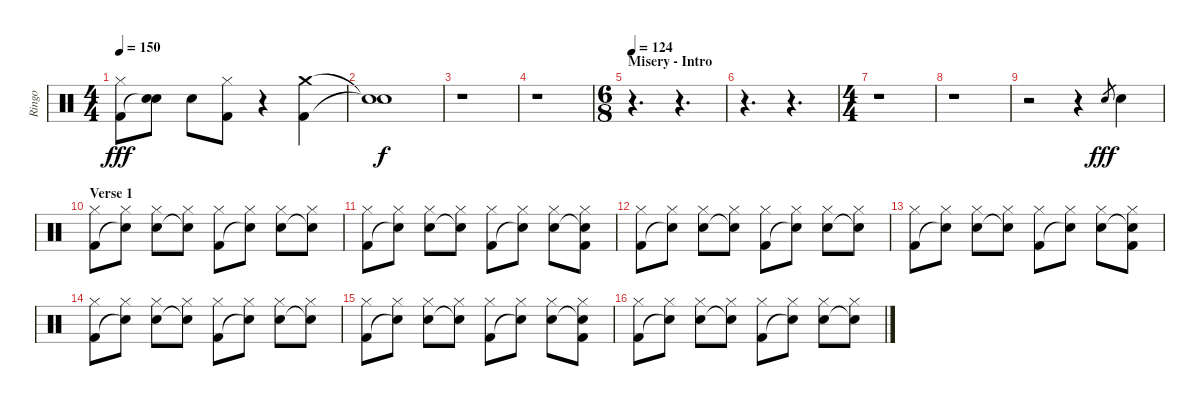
\track ("Ringo" "Ringo") {instrument percussion}
\staff {score}
\articulation defaults
\ts (4 4)
\tempo 150
\clef neutral
\ks c
("Hi-Hat (closed)" "Kick (hit) 2").8{dy fff} ("Snare (hit) 2" "Snare (hit)"{t}).8 "Snare (hit) 2".8 ("Hi-Hat (closed)" "Kick (hit) 2").8 r.4 ("Crash medium (hit)" "Kick (hit) 2").4 |
("Snare (hit)"{t} "Snare (hit)"{t}).1{dy f} |
r.1 |
r.1 |
\ts (6 8)
\section ("" "Misery - Intro")
\tempo 124
r.4{d} r.4{d} |
r.4{d} r.4{d} |
\ts (4 4)
r.1 |
r.1 |
r.2 r.4 "Snare (hit) 2".8{gr dy fff} "Snare (hit) 2".4 |
\section ("" "Verse 1")
("Hi-Hat (closed)" "Kick (hit) 2").8 ("Hi-Hat (closed)" "Snare (hit)"{t}).8 ("Hi-Hat (closed)" "Snare (hit) 2").8 ("Hi-Hat (closed)" "Snare (hit)"{t}).8 ("Hi-Hat (closed)" "Kick (hit) 2").8 ("Hi-Hat (closed)" "Snare (hit)"{t}).8 ("Hi-Hat (closed)" "Snare (hit) 2").8 ("Hi-Hat (closed)" "Snare (hit)"{t}).8 |
("Hi-Hat (closed)" "Kick (hit) 2").8 ("Hi-Hat (closed)" "Snare (hit)"{t}).8 ("Hi-Hat (closed)" "Snare (hit) 2").8 ("Hi-Hat (closed)" "Snare (hit)"{t}).8 ("Hi-Hat (closed)" "Kick (hit) 2").8 ("Hi-Hat (closed)" "Snare (hit)"{t}).8 ("Hi-Hat (closed)" "Snare (hit) 2").8 ("Hi-Hat (closed)" "Snare (hit)"{t} "Kick (hit) 2").8 |
("Hi-Hat (closed)" "Kick (hit) 2").8 ("Hi-Hat (closed)" "Snare (hit)"{t}).8 ("Hi-Hat (closed)" "Snare (hit) 2").8 ("Hi-Hat (closed)" "Snare (hit)"{t}).8 ("Hi-Hat (closed)" "Kick (hit) 2").8 ("Hi-Hat (closed)" "Snare (hit)"{t}).8 ("Hi-Hat (closed)" "Snare (hit) 2").8 ("Hi-Hat (closed)" "Snare (hit)"{t}).8 |
("Hi-Hat (closed)" "Kick (hit) 2").8 ("Hi-Hat (closed)" "Snare (hit)"{t}).8 ("Hi-Hat (closed)" "Snare (hit) 2").8 ("Hi-Hat (closed)" "Snare (hit)"{t}).8 ("Hi-Hat (closed)" "Kick (hit) 2").8 ("Hi-Hat (closed)" "Snare (hit)"{t}).8 ("Hi-Hat (closed)" "Snare (hit) 2").8 ("Hi-Hat (closed)" "Snare (hit)"{t} "Kick (hit) 2").8 |
("Hi-Hat (closed)" "Kick (hit) 2").8 ("Hi-Hat (closed)" "Snare (hit)"{t}).8 ("Hi-Hat (closed)" "Snare (hit) 2").8 ("Hi-Hat (closed)" "Snare (hit)"{t}).8 ("Hi-Hat (closed)" "Kick (hit) 2").8 ("Hi-Hat (closed)" "Snare (hit)"{t}).8 ("Hi-Hat (closed)" "Snare (hit) 2").8 ("Hi-Hat (closed)" "Snare (hit)"{t}).8 |
("Hi-Hat (closed)" "Kick (hit) 2").8 ("Hi-Hat (closed)" "Snare (hit)"{t}).8 ("Hi-Hat (closed)" "Snare (hit) 2").8 ("Hi-Hat (closed)" "Snare (hit)"{t}).8 ("Hi-Hat (closed)" "Kick (hit) 2").8 ("Hi-Hat (closed)" "Snare (hit)"{t}).8 ("Hi-Hat (closed)" "Snare (hit) 2").8 ("Hi-Hat (closed)" "Snare (hit)"{t} "Kick (hit) 2").8 |
("Hi-Hat (closed)" "Kick (hit) 2").8 ("Hi-Hat (closed)" "Snare (hit)"{t}).8 ("Hi-Hat (closed)" "Snare (hit) 2").8 ("Hi-Hat (closed)" "Snare (hit)"{t}).8 ("Hi-Hat (closed)" "Kick (hit) 2").8 ("Hi-Hat (closed)" "Snare (hit)"{t}).8 ("Hi-Hat (closed)" "Snare (hit) 2").8 ("Hi-Hat (closed)" "Snare (hit)"{t}).8
